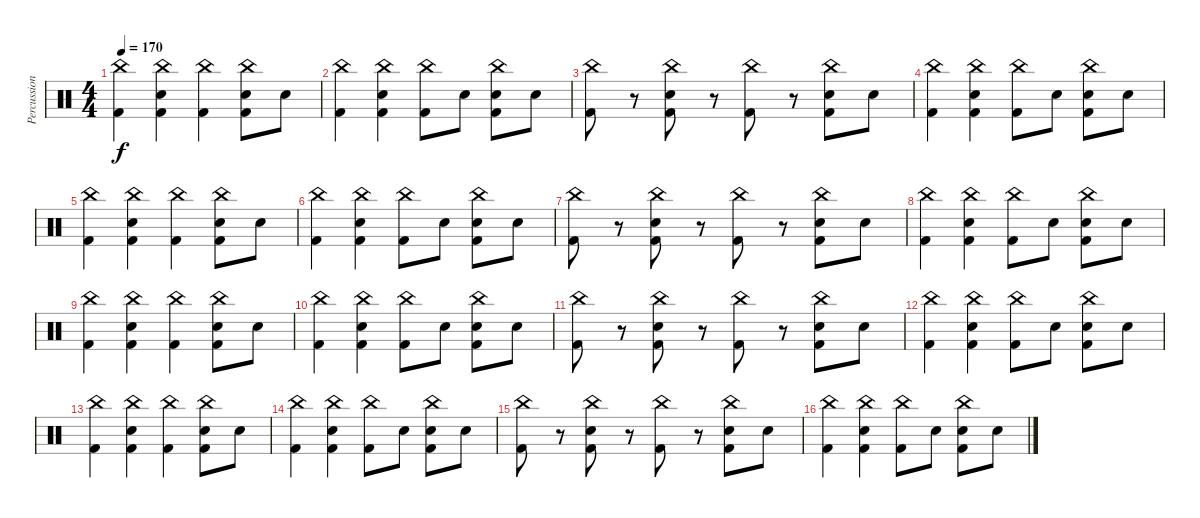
\track ("Percussion" "Percussion") {instrument percussion}
\staff {score}
\articulation defaults
\ts (4 4)
\tempo 170
\clef neutral
\ks c
("China (hit)" "Kick (hit) 2").4{dy f} ("China (hit)" "Electric Snare (hit)" "Kick (hit) 2").4 ("China (hit)" "Kick (hit) 2").4 ("China (hit)" "Electric Snare (hit)" "Kick (hit) 2").8 "Electric Snare (hit)".8 |
("China (hit)" "Kick (hit) 2").4 ("China (hit)" "Electric Snare (hit)" "Kick (hit) 2").4 ("China (hit)" "Kick (hit) 2").8 "Electric Snare (hit)".8 ("China (hit)" "Electric Snare (hit)" "Kick (hit) 2").8 "Electric Snare (hit)".8 |
("China (hit)" "Kick (hit) 2").8 r.8 ("China (hit)" "Electric Snare (hit)" "Kick (hit) 2").8 r.8 ("China (hit)" "Kick (hit) 2").8 r.8 ("China (hit)" "Electric Snare (hit)" "Kick (hit) 2").8 "Electric Snare (hit)".8 |
("China (hit)" "Kick (hit) 2").4 ("China (hit)" "Electric Snare (hit)" "Kick (hit) 2").4 ("China (hit)" "Kick (hit) 2").8 "Electric Snare (hit)".8 ("China (hit)" "Electric Snare (hit)" "Kick (hit) 2").8 "Electric Snare (hit)".8 |
("China (hit)" "Kick (hit) 2").4 ("China (hit)" "Electric Snare (hit)" "Kick (hit) 2").4 ("China (hit)" "Kick (hit) 2").4 ("China (hit)" "Electric Snare (hit)" "Kick (hit) 2").8 "Electric Snare (hit)".8 |
("China (hit)" "Kick (hit) 2").4 ("China (hit)" "Electric Snare (hit)" "Kick (hit) 2").4 ("China (hit)" "Kick (hit) 2").8 "Electric Snare (hit)".8 ("China (hit)" "Electric Snare (hit)" "Kick (hit) 2").8 "Electric Snare (hit)".8 |
("China (hit)" "Kick (hit) 2").8 r.8 ("China (hit)" "Electric Snare (hit)" "Kick (hit) 2").8 r.8 ("China (hit)" "Kick (hit) 2").8 r.8 ("China (hit)" "Electric Snare (hit)" "Kick (hit) 2").8 "Electric Snare (hit)".8 |
("China (hit)" "Kick (hit) 2").4 ("China (hit)" "Electric Snare (hit)" "Kick (hit) 2").4 ("China (hit)" "Kick (hit) 2").8 "Electric Snare (hit)".8 ("China (hit)" "Electric Snare (hit)" "Kick (hit) 2").8 "Electric Snare (hit)".8 |
("China (hit)" "Kick (hit) 2").4 ("China (hit)" "Electric Snare (hit)" "Kick (hit) 2").4 ("China (hit)" "Kick (hit) 2").4 ("China (hit)" "Electric Snare (hit)" "Kick (hit) 2").8 "Electric Snare (hit)".8 |
("China (hit)" "Kick (hit) 2").4 ("China (hit)" "Electric Snare (hit)" "Kick (hit) 2").4 ("China (hit)" "Kick (hit) 2").8 "Electric Snare (hit)".8 ("China (hit)" "Electric Snare (hit)" "Kick (hit) 2").8 "Electric Snare (hit)".8 |
("China (hit)" "Kick (hit) 2").8 r.8 ("China (hit)" "Electric Snare (hit)" "Kick (hit) 2").8 r.8 ("China (hit)" "Kick (hit) 2").8 r.8 ("China (hit)" "Electric Snare (hit)" "Kick (hit) 2").8 "Electric Snare (hit)".8 |
("China (hit)" "Kick (hit) 2").4 ("China (hit)" "Electric Snare (hit)" "Kick (hit) 2").4 ("China (hit)" "Kick (hit) 2").8 "Electric Snare (hit)".8 ("China (hit)" "Electric Snare (hit)" "Kick (hit) 2").8 "Electric Snare (hit)".8 |
("China (hit)" "Kick (hit) 2").4 ("China (hit)" "Electric Snare (hit)" "Kick (hit) 2").4 ("China (hit)" "Kick (hit) 2").4 ("China (hit)" "Electric Snare (hit)" "Kick (hit) 2").8 "Electric Snare (hit)".8 |
("China (hit)" "Kick (hit) 2").4 ("China (hit)" "Electric Snare (hit)" "Kick (hit) 2").4 ("China (hit)" "Kick (hit) 2").8 "Electric Snare (hit)".8 ("China (hit)" "Electric Snare (hit)" "Kick (hit) 2").8 "Electric Snare (hit)".8 |
("China (hit)" "Kick (hit) 2").8 r.8 ("China (hit)" "Electric Snare (hit)" "Kick (hit) 2").8 r.8 ("China (hit)" "Kick (hit) 2").8 r.8 ("China (hit)" "Electric Snare (hit)" "Kick (hit) 2").8 "Electric Snare (hit)".8 |
("China (hit)" "Kick (hit) 2").4 ("China (hit)" "Electric Snare (hit)" "Kick (hit) 2").4 ("China (hit)" "Kick (hit) 2").8 "Electric Snare (hit)".8 ("China (hit)" "Electric Snare (hit)" "Kick (hit) 2").8 "Electric Snare (hit)".8
